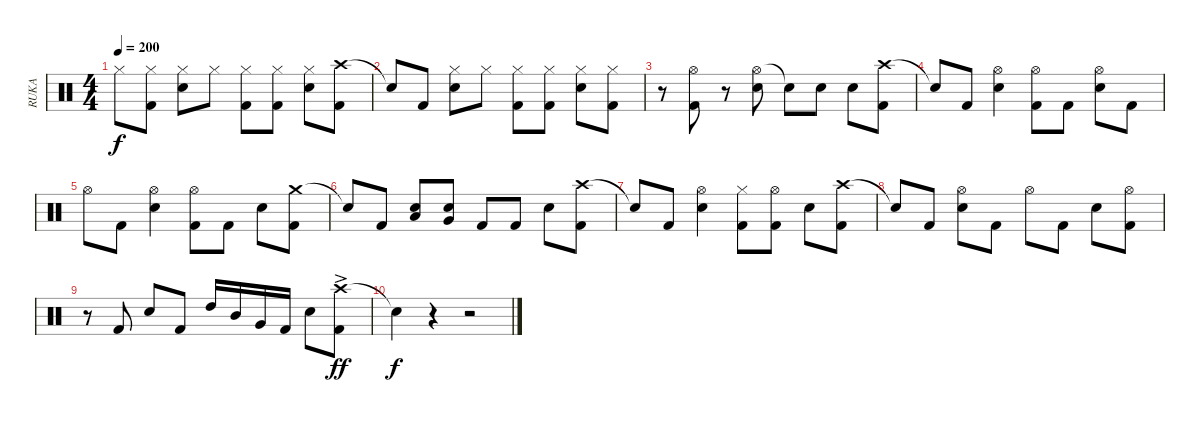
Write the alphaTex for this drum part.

\track ("RUKA" "RUKA") {instrument percussion}
\staff {score}
\articulation defaults
\ts (4 4)
\tempo 200
\clef neutral
\ks c "Hi-Hat (closed)".8{dy f}
("Hi-Hat (closed)" "Kick (hit) 2").8 ("Hi-Hat (closed)" "Snare (hit) 2").8 "Hi-Hat (closed)".8 ("Hi-Hat (closed)" "Kick (hit) 2").8 ("Hi-Hat (closed)" "Kick (hit) 2").8 ("Hi-Hat (closed)" "Snare (hit) 2").8 ("Crash high (hit)" "Kick (hit) 2").8 |
"Snare (hit)"{t}.8 "Kick (hit) 2".8 ("Hi-Hat (closed)" "Snare (hit) 2").8 "Hi-Hat (closed)".8 ("Hi-Hat (closed)" "Kick (hit) 2").8 ("Hi-Hat (closed)" "Kick (hit) 2").8 ("Hi-Hat (closed)" "Snare (hit) 2").8 ("Hi-Hat (closed)" "Kick (hit) 2").8 |
r.8 ("Hi-Hat (open)" "Kick (hit) 2").8 r.8 ("Hi-Hat (open)" "Snare (hit) 2").8 "Snare (hit)"{t}.8 "Snare (hit) 2".8 "Snare (hit) 2".8 ("Crash high (hit)" "Kick (hit) 2").8 |
"Snare (hit)"{t}.8 "Kick (hit) 2".8 ("Hi-Hat (open)" "Snare (hit) 2").4 ("Hi-Hat (open)" "Kick (hit) 2").8 "Kick (hit) 2".8 ("Hi-Hat (open)" "Snare (hit) 2").8 "Kick (hit) 2".8 |
"Hi-Hat (open)".8 "Kick (hit) 2".8 ("Hi-Hat (open)" "Snare (hit) 2").4 ("Hi-Hat (open)" "Kick (hit) 2").8 "Kick (hit) 2".8 "Snare (hit) 2".8 ("Crash medium (hit)" "Kick (hit) 2").8 |
"Snare (hit)"{t}.8 "Kick (hit) 2".8 ("Snare (hit) 2" "Low Tom (hit)").8 ("Snare (hit) 2" "Very Low Tom (hit)").8 "Kick (hit) 2".8 "Kick (hit) 2".8 "Snare (hit) 2".8 ("Crash high (hit)" "Kick (hit) 2").8 |
"Snare (hit)"{t}.8 "Kick (hit) 2".8 ("Hi-Hat (open)" "Snare (hit) 2").4 ("Hi-Hat (closed)" "Kick (hit) 2").8 ("Hi-Hat (open)" "Kick (hit) 2").8 "Snare (hit) 2".8 ("Crash high (hit)" "Kick (hit) 2").8 |
"Snare (hit)"{t}.8 "Kick (hit) 2".8 ("Hi-Hat (open)" "Snare (hit) 2").8 "Kick (hit) 2".8 "Hi-Hat (open)".8 "Kick (hit) 2".8 "Snare (hit) 2".8 ("Hi-Hat (open)" "Kick (hit) 2").8 |
r.8 "Kick (hit) 2".8 "Snare (hit) 2".8 "Kick (hit) 2".8 "High Tom (hit)".16 "Mid Tom (hit)".16 "Very Low Tom (hit)".16 "Kick (hit) 2".16 "Snare (hit) 2".8 ("Crash high (hit)"{ac} "Kick (hit) 2").8{dy ff} |
"Snare (hit)"{t}.4{dy f} r.4 r.2
